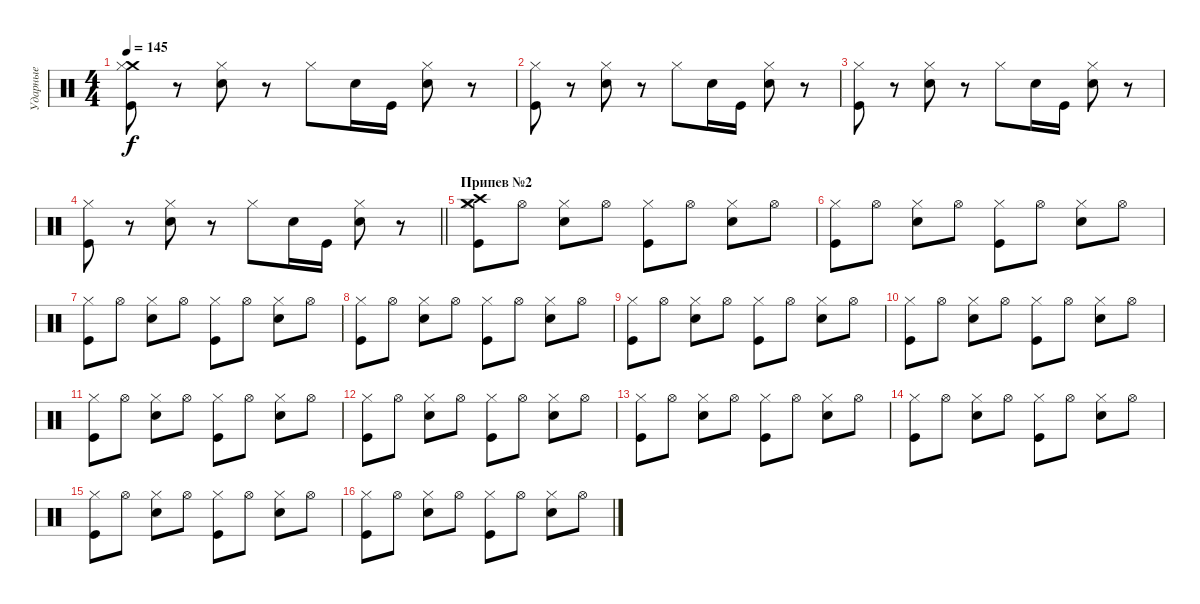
\track ("Ударные" "Ударные") {instrument percussion}
\staff {score}
\articulation defaults
\ts (4 4)
\tempo 145
\clef neutral
\ks c
("Kick (hit)" "Crash medium (hit)" "Hi-Hat (closed)").8{dy f} r.8 ("Electric Snare (hit)" "Hi-Hat (closed)").8 r.8 "Hi-Hat (closed)".8 "Electric Snare (hit)".16 "Kick (hit)".16 ("Electric Snare (hit)" "Hi-Hat (closed)").8 r.8 |
("Kick (hit)" "Hi-Hat (closed)").8 r.8 ("Electric Snare (hit)" "Hi-Hat (closed)").8 r.8 "Hi-Hat (closed)".8 "Electric Snare (hit)".16 "Kick (hit)".16 ("Electric Snare (hit)" "Hi-Hat (closed)").8 r.8 |
("Kick (hit)" "Hi-Hat (closed)").8 r.8 ("Electric Snare (hit)" "Hi-Hat (closed)").8 r.8 "Hi-Hat (closed)".8 "Electric Snare (hit)".16 "Kick (hit)".16 ("Electric Snare (hit)" "Hi-Hat (closed)").8 r.8 |
\barLineRight lightlight
("Kick (hit)" "Hi-Hat (closed)").8 r.8 ("Electric Snare (hit)" "Hi-Hat (closed)").8 r.8 "Hi-Hat (closed)".8 "Electric Snare (hit)".16 "Kick (hit)".16 ("Electric Snare (hit)" "Hi-Hat (closed)").8 r.8 |
\section ("" "Припев №2")
("Kick (hit)" "Hi-Hat (closed)" "Crash medium (hit)" "Crash high (hit)").8 "Hi-Hat (open)".8 ("Electric Snare (hit)" "Hi-Hat (closed)").8 "Hi-Hat (open)".8 ("Kick (hit)" "Hi-Hat (closed)").8 "Hi-Hat (open)".8 ("Electric Snare (hit)" "Hi-Hat (closed)").8 "Hi-Hat (open)".8 |
("Kick (hit)" "Hi-Hat (closed)").8 "Hi-Hat (open)".8 ("Electric Snare (hit)" "Hi-Hat (closed)").8 "Hi-Hat (open)".8 ("Kick (hit)" "Hi-Hat (closed)").8 "Hi-Hat (open)".8 ("Electric Snare (hit)" "Hi-Hat (closed)").8 "Hi-Hat (open)".8 |
("Kick (hit)" "Hi-Hat (closed)").8 "Hi-Hat (open)".8 ("Electric Snare (hit)" "Hi-Hat (closed)").8 "Hi-Hat (open)".8 ("Kick (hit)" "Hi-Hat (closed)").8 "Hi-Hat (open)".8 ("Electric Snare (hit)" "Hi-Hat (closed)").8 "Hi-Hat (open)".8 |
("Kick (hit)" "Hi-Hat (closed)").8 "Hi-Hat (open)".8 ("Electric Snare (hit)" "Hi-Hat (closed)").8 "Hi-Hat (open)".8 ("Kick (hit)" "Hi-Hat (closed)").8 "Hi-Hat (open)".8 ("Electric Snare (hit)" "Hi-Hat (closed)").8 "Hi-Hat (open)".8 |
("Kick (hit)" "Hi-Hat (closed)").8 "Hi-Hat (open)".8 ("Electric Snare (hit)" "Hi-Hat (closed)").8 "Hi-Hat (open)".8 ("Kick (hit)" "Hi-Hat (closed)").8 "Hi-Hat (open)".8 ("Electric Snare (hit)" "Hi-Hat (closed)").8 "Hi-Hat (open)".8 |
("Kick (hit)" "Hi-Hat (closed)").8 "Hi-Hat (open)".8 ("Electric Snare (hit)" "Hi-Hat (closed)").8 "Hi-Hat (open)".8 ("Kick (hit)" "Hi-Hat (closed)").8 "Hi-Hat (open)".8 ("Electric Snare (hit)" "Hi-Hat (closed)").8 "Hi-Hat (open)".8 |
("Kick (hit)" "Hi-Hat (closed)").8 "Hi-Hat (open)".8 ("Electric Snare (hit)" "Hi-Hat (closed)").8 "Hi-Hat (open)".8 ("Kick (hit)" "Hi-Hat (closed)").8 "Hi-Hat (open)".8 ("Electric Snare (hit)" "Hi-Hat (closed)").8 "Hi-Hat (open)".8 |
("Kick (hit)" "Hi-Hat (closed)").8 "Hi-Hat (open)".8 ("Electric Snare (hit)" "Hi-Hat (closed)").8 "Hi-Hat (open)".8 ("Kick (hit)" "Hi-Hat (closed)").8 "Hi-Hat (open)".8 ("Electric Snare (hit)" "Hi-Hat (closed)").8 "Hi-Hat (open)".8 |
("Kick (hit)" "Hi-Hat (closed)").8 "Hi-Hat (open)".8 ("Electric Snare (hit)" "Hi-Hat (closed)").8 "Hi-Hat (open)".8 ("Kick (hit)" "Hi-Hat (closed)").8 "Hi-Hat (open)".8 ("Electric Snare (hit)" "Hi-Hat (closed)").8 "Hi-Hat (open)".8 |
("Kick (hit)" "Hi-Hat (closed)").8 "Hi-Hat (open)".8 ("Electric Snare (hit)" "Hi-Hat (closed)").8 "Hi-Hat (open)".8 ("Kick (hit)" "Hi-Hat (closed)").8 "Hi-Hat (open)".8 ("Electric Snare (hit)" "Hi-Hat (closed)").8 "Hi-Hat (open)".8 |
("Kick (hit)" "Hi-Hat (closed)").8 "Hi-Hat (open)".8 ("Electric Snare (hit)" "Hi-Hat (closed)").8 "Hi-Hat (open)".8 ("Kick (hit)" "Hi-Hat (closed)").8 "Hi-Hat (open)".8 ("Electric Snare (hit)" "Hi-Hat (closed)").8 "Hi-Hat (open)".8 |
("Kick (hit)" "Hi-Hat (closed)").8 "Hi-Hat (open)".8 ("Electric Snare (hit)" "Hi-Hat (closed)").8 "Hi-Hat (open)".8 ("Kick (hit)" "Hi-Hat (closed)").8 "Hi-Hat (open)".8 ("Electric Snare (hit)" "Hi-Hat (closed)").8 "Hi-Hat (open)".8
